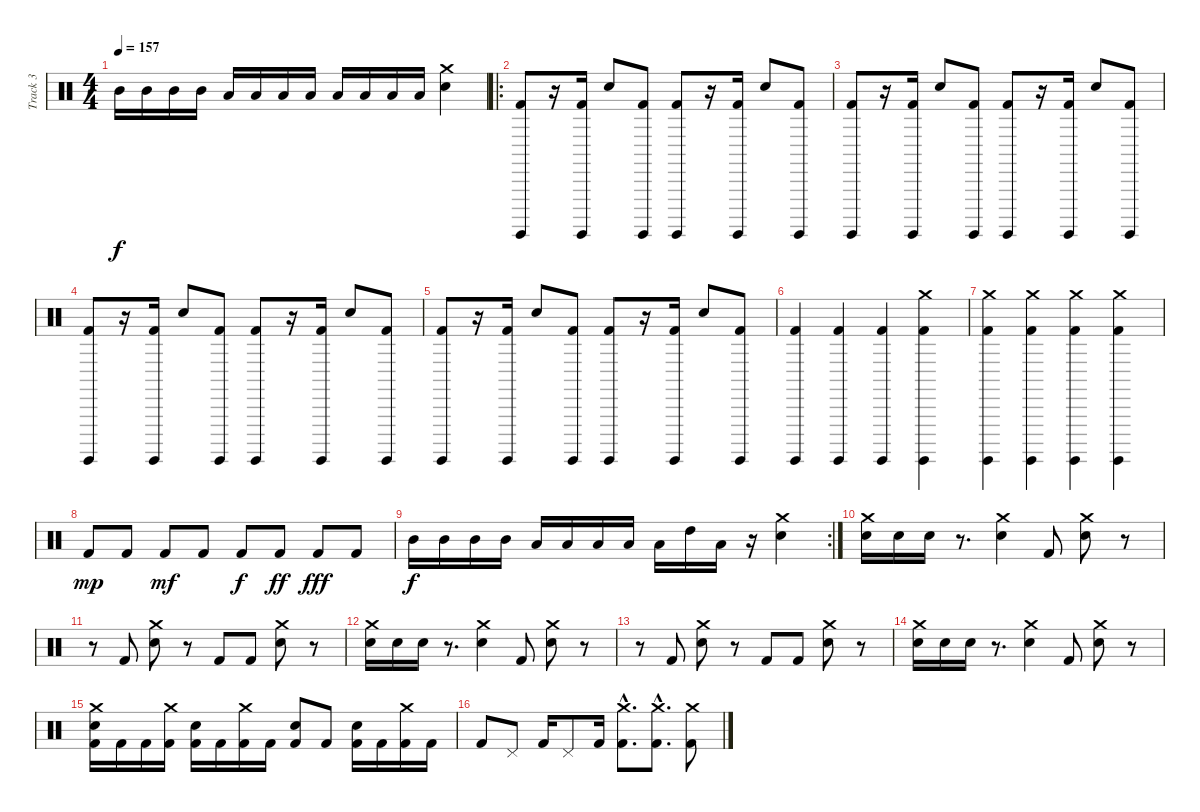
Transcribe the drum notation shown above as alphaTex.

\track ("Track 3" "Track 3") {instrument percussion}
\staff {score}
\articulation defaults
\ts (4 4)
\tempo 157
\clef neutral
\ks c "Mid Tom (hit)".16{dy f} "Mid Tom (hit)".16 "Mid Tom (hit)".16 "Mid Tom (hit)".16 "Low Tom (hit)".16 "Low Tom (hit)".16 "Low Tom (hit)".16 "Low Tom (hit)".16 "Low Floor Tom (hit)".16 "Low Floor Tom (hit)".16 "Low Floor Tom (hit)".16 "Low Floor Tom (hit)".16
("Crash medium (hit)" "Electric Snare (hit)").4 |
\ro
("Surdo (hit)" "Kick (hit) 2").8 r.16 ("Surdo (hit)" "Kick (hit) 2").16 "Electric Snare (hit)".8 ("Surdo (hit)" "Kick (hit) 2").8 ("Surdo (hit)" "Kick (hit) 2").8 r.16 ("Surdo (hit)" "Kick (hit) 2").16 "Electric Snare (hit)".8 ("Surdo (hit)" "Kick (hit) 2").8 |
("Surdo (hit)" "Kick (hit) 2").8 r.16 ("Surdo (hit)" "Kick (hit) 2").16 "Electric Snare (hit)".8 ("Surdo (hit)" "Kick (hit) 2").8 ("Surdo (hit)" "Kick (hit) 2").8 r.16 ("Surdo (hit)" "Kick (hit) 2").16 "Electric Snare (hit)".8 ("Surdo (hit)" "Kick (hit) 2").8 |
("Surdo (hit)" "Kick (hit) 2").8 r.16 ("Surdo (hit)" "Kick (hit) 2").16 "Electric Snare (hit)".8 ("Surdo (hit)" "Kick (hit) 2").8 ("Surdo (hit)" "Kick (hit) 2").8 r.16 ("Surdo (hit)" "Kick (hit) 2").16 "Electric Snare (hit)".8 ("Surdo (hit)" "Kick (hit) 2").8 |
("Surdo (hit)" "Kick (hit) 2").8 r.16 ("Surdo (hit)" "Kick (hit) 2").16 "Electric Snare (hit)".8 ("Surdo (hit)" "Kick (hit) 2").8 ("Surdo (hit)" "Kick (hit) 2").8 r.16 ("Surdo (hit)" "Kick (hit) 2").16 "Electric Snare (hit)".8 ("Surdo (hit)" "Kick (hit) 2").8 |
("Surdo (hit)" "Kick (hit) 2").4 ("Surdo (hit)" "Kick (hit) 2").4 ("Surdo (hit)" "Kick (hit) 2").4 ("Surdo (hit)" "Crash medium (hit)" "Kick (hit) 2").4 |
("Surdo (hit)" "Crash medium (hit)" "Kick (hit) 2").4 ("Surdo (hit)" "Crash medium (hit)" "Kick (hit) 2").4 ("Surdo (hit)" "Crash medium (hit)" "Kick (hit) 2").4 ("Surdo (hit)" "Crash medium (hit)" "Kick (hit) 2").4 |
"Kick (hit) 2".8{dy mp} "Kick (hit) 2".8 "Kick (hit) 2".8{dy mf} "Kick (hit) 2".8 "Kick (hit) 2".8{dy f} "Kick (hit) 2".8{dy ff} "Kick (hit) 2".8{dy fff} "Kick (hit) 2".8 |
\rc 2 "Mid Tom (hit)".16{dy f} "Mid Tom (hit)".16 "Mid Tom (hit)".16 "Mid Tom (hit)".16 "Low Tom (hit)".16 "Low Tom (hit)".16 "Low Tom (hit)".16 "Low Tom (hit)".16 "Low Floor Tom (hit)".16 "High Tom (hit)".16 "Low Floor Tom (hit)".16
r.16 ("Crash medium (hit)" "Electric Snare (hit)").4 |
("Electric Snare (hit)" "Crash medium (hit)").16 "Electric Snare (hit)".16 "Electric Snare (hit)".16 r.8{d} ("Electric Snare (hit)" "Crash medium (hit)").4 "Kick (hit) 2".8 ("Electric Snare (hit)" "Crash medium (hit)").8 r.8 |
r.8 "Kick (hit) 2".8 ("Electric Snare (hit)" "Crash medium (hit)").8 r.8 "Kick (hit) 2".8 "Kick (hit) 2".8 ("Electric Snare (hit)" "Crash medium (hit)").8 r.8 |
("Electric Snare (hit)" "Crash medium (hit)").16 "Electric Snare (hit)".16 "Electric Snare (hit)".16 r.8{d} ("Electric Snare (hit)" "Crash medium (hit)").4 "Kick (hit) 2".8 ("Electric Snare (hit)" "Crash medium (hit)").8 r.8 |
r.8 "Kick (hit) 2".8 ("Electric Snare (hit)" "Crash medium (hit)").8 r.8 "Kick (hit) 2".8 "Kick (hit) 2".8 ("Electric Snare (hit)" "Crash medium (hit)").8 r.8 |
("Electric Snare (hit)" "Crash medium (hit)").16 "Electric Snare (hit)".16 "Electric Snare (hit)".16 r.8{d} ("Electric Snare (hit)" "Crash medium (hit)").4 "Kick (hit) 2".8 ("Electric Snare (hit)" "Crash medium (hit)").8 r.8 |
("Kick (hit) 2" "Crash medium (hit)" "Snare (hit) 2").16 "Kick (hit) 2".16 "Kick (hit) 2".16 ("Kick (hit) 2" "Crash medium (hit)").16 ("Kick (hit) 2" "Snare (hit) 2").16 "Kick (hit) 2".16 ("Kick (hit) 2" "Crash medium (hit)").16 "Kick (hit) 2".16 ("Kick (hit) 2" "Snare (hit) 2").8 "Kick (hit) 2".8 ("Kick (hit) 2" "Snare (hit) 2").16 "Kick (hit) 2".16 ("Kick (hit) 2" "Crash medium (hit)").16 "Kick (hit) 2".16 |
"Kick (hit) 2".8 "Pedal Hi-Hat (hit)".8 "Kick (hit) 2".16 "Pedal Hi-Hat (hit)".8 "Kick (hit) 2".16 ("Kick (hit) 2"{hac} "Crash medium (hit)"{hac}).8{d} ("Kick (hit) 2"{hac} "Crash medium (hit)"{hac}).8{d} ("Kick (hit) 2" "Crash medium (hit)").8
